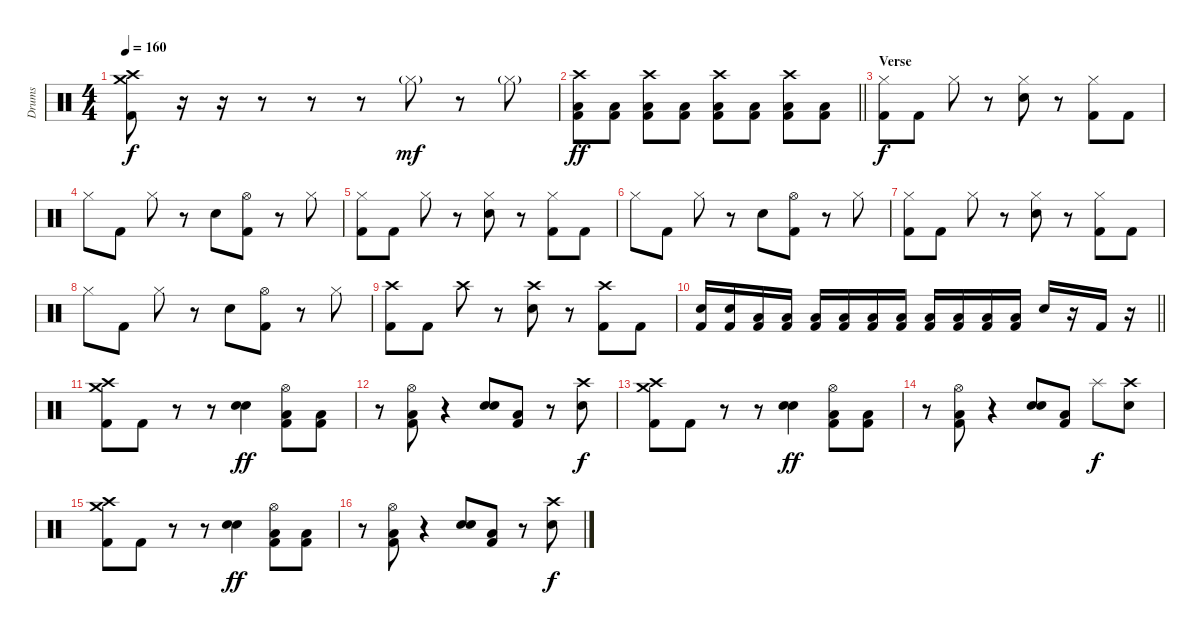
\track ("Drums" "Drums") {instrument percussion}
\staff {score}
\articulation defaults
\ts (4 4)
\tempo 160
\clef neutral
\ks c
("Crash high (hit)" "Crash medium (hit)" "Kick (hit) 2").8{dy f} r.16 r.16 r.8 r.8 r.8 "Hi-Hat (closed)"{g}.8{dy mf} r.8 "Hi-Hat (closed)"{g}.8 |
\barLineRight lightlight
("Crash high (hit)" "Low Floor Tom (hit)" "Kick (hit) 2").8{dy ff} ("Low Floor Tom (hit)" "Kick (hit) 2").8 ("Crash high (hit)" "Low Floor Tom (hit)" "Kick (hit) 2").8 ("Low Floor Tom (hit)" "Kick (hit) 2").8 ("Crash high (hit)" "Low Floor Tom (hit)" "Kick (hit) 2").8 ("Low Floor Tom (hit)" "Kick (hit) 2").8 ("Crash high (hit)" "Low Floor Tom (hit)" "Kick (hit) 2").8 ("Low Floor Tom (hit)" "Kick (hit) 2").8 |
\section ("" "Verse")
("Hi-Hat (closed)" "Kick (hit) 2").8{dy f} "Kick (hit) 2".8 "Hi-Hat (closed)".8 r.8 ("Hi-Hat (closed)" "Electric Snare (hit)").8 r.8 ("Hi-Hat (closed)" "Kick (hit) 2").8 "Kick (hit) 2".8 |
"Hi-Hat (closed)".8 "Kick (hit) 2".8 "Hi-Hat (closed)".8 r.8 "Electric Snare (hit)".8 ("Hi-Hat (open)" "Kick (hit) 2").8 r.8 "Hi-Hat (closed)".8 |
("Hi-Hat (closed)" "Kick (hit) 2").8 "Kick (hit) 2".8 "Hi-Hat (closed)".8 r.8 ("Hi-Hat (closed)" "Electric Snare (hit)").8 r.8 ("Hi-Hat (closed)" "Kick (hit) 2").8 "Kick (hit) 2".8 |
"Hi-Hat (closed)".8 "Kick (hit) 2".8 "Hi-Hat (closed)".8 r.8 "Electric Snare (hit)".8 ("Hi-Hat (open)" "Kick (hit) 2").8 r.8 "Hi-Hat (closed)".8 |
("Hi-Hat (closed)" "Kick (hit) 2").8 "Kick (hit) 2".8 "Hi-Hat (closed)".8 r.8 ("Hi-Hat (closed)" "Electric Snare (hit)").8 r.8 ("Hi-Hat (closed)" "Kick (hit) 2").8 "Kick (hit) 2".8 |
"Hi-Hat (closed)".8 "Kick (hit) 2".8 "Hi-Hat (closed)".8 r.8 "Electric Snare (hit)".8 ("Hi-Hat (open)" "Kick (hit) 2").8 r.8 "Hi-Hat (closed)".8 |
("Crash high (hit)" "Kick (hit) 2").8 "Kick (hit) 2".8 "Crash high (hit)".8 r.8 ("Crash high (hit)" "Electric Snare (hit)").8 r.8 ("Crash high (hit)" "Kick (hit) 2").8 "Kick (hit) 2".8 |
\barLineRight lightlight
("Electric Snare (hit)" "Kick (hit) 2").16 ("Electric Snare (hit)" "Kick (hit) 2").16 ("Low Floor Tom (hit)" "Kick (hit) 2").16 ("Low Floor Tom (hit)" "Kick (hit) 2").16 ("Low Floor Tom (hit)" "Kick (hit) 2").16 ("Low Floor Tom (hit)" "Kick (hit) 2").16 ("Low Tom (hit)" "Kick (hit) 2").16 ("Low Tom (hit)" "Kick (hit) 2").16 ("Low Floor Tom (hit)" "Kick (hit) 2").16 ("Low Floor Tom (hit)" "Kick (hit) 2").16 ("Low Floor Tom (hit)" "Kick (hit) 2").16 ("Low Floor Tom (hit)" "Kick (hit) 2").16 "Electric Snare (hit)".16 r.16 "Kick (hit) 2".16 r.16 |
\section ("" "")
("Crash high (hit)" "Crash medium (hit)" "Kick (hit) 2").8 "Kick (hit) 2".8 r.8 r.8 ("Electric Snare (hit)" "Snare (hit) 2").4{dy ff} ("Hi-Hat (open)" "Low Floor Tom (hit)" "Kick (hit) 2").8 ("Low Floor Tom (hit)" "Kick (hit) 2").8 |
r.8 ("Hi-Hat (open)" "Low Floor Tom (hit)" "Kick (hit) 2").8 r.4 ("Electric Snare (hit)" "Snare (hit) 2").8 ("Low Floor Tom (hit)" "Kick (hit) 2").8 r.8 ("Crash high (hit)" "Snare (hit) 2").8{dy f} |
("Crash high (hit)" "Crash medium (hit)" "Kick (hit) 2").8 "Kick (hit) 2".8 r.8 r.8 ("Electric Snare (hit)" "Snare (hit) 2").4{dy ff} ("Hi-Hat (open)" "Low Floor Tom (hit)" "Kick (hit) 2").8 ("Low Floor Tom (hit)" "Kick (hit) 2").8 |
r.8 ("Hi-Hat (open)" "Low Floor Tom (hit)" "Kick (hit) 2").8 r.4 ("Electric Snare (hit)" "Snare (hit) 2").8 ("Low Floor Tom (hit)" "Kick (hit) 2").8 "Splash (hit)".8{dy f} ("Crash high (hit)" "Snare (hit) 2").8 |
("Crash high (hit)" "Crash medium (hit)" "Kick (hit) 2").8 "Kick (hit) 2".8 r.8 r.8 ("Electric Snare (hit)" "Snare (hit) 2").4{dy ff} ("Hi-Hat (open)" "Low Floor Tom (hit)" "Kick (hit) 2").8 ("Low Floor Tom (hit)" "Kick (hit) 2").8 |
r.8 ("Hi-Hat (open)" "Low Floor Tom (hit)" "Kick (hit) 2").8 r.4 ("Electric Snare (hit)" "Snare (hit) 2").8 ("Low Floor Tom (hit)" "Kick (hit) 2").8 r.8 ("Crash high (hit)" "Snare (hit) 2").8{dy f}
